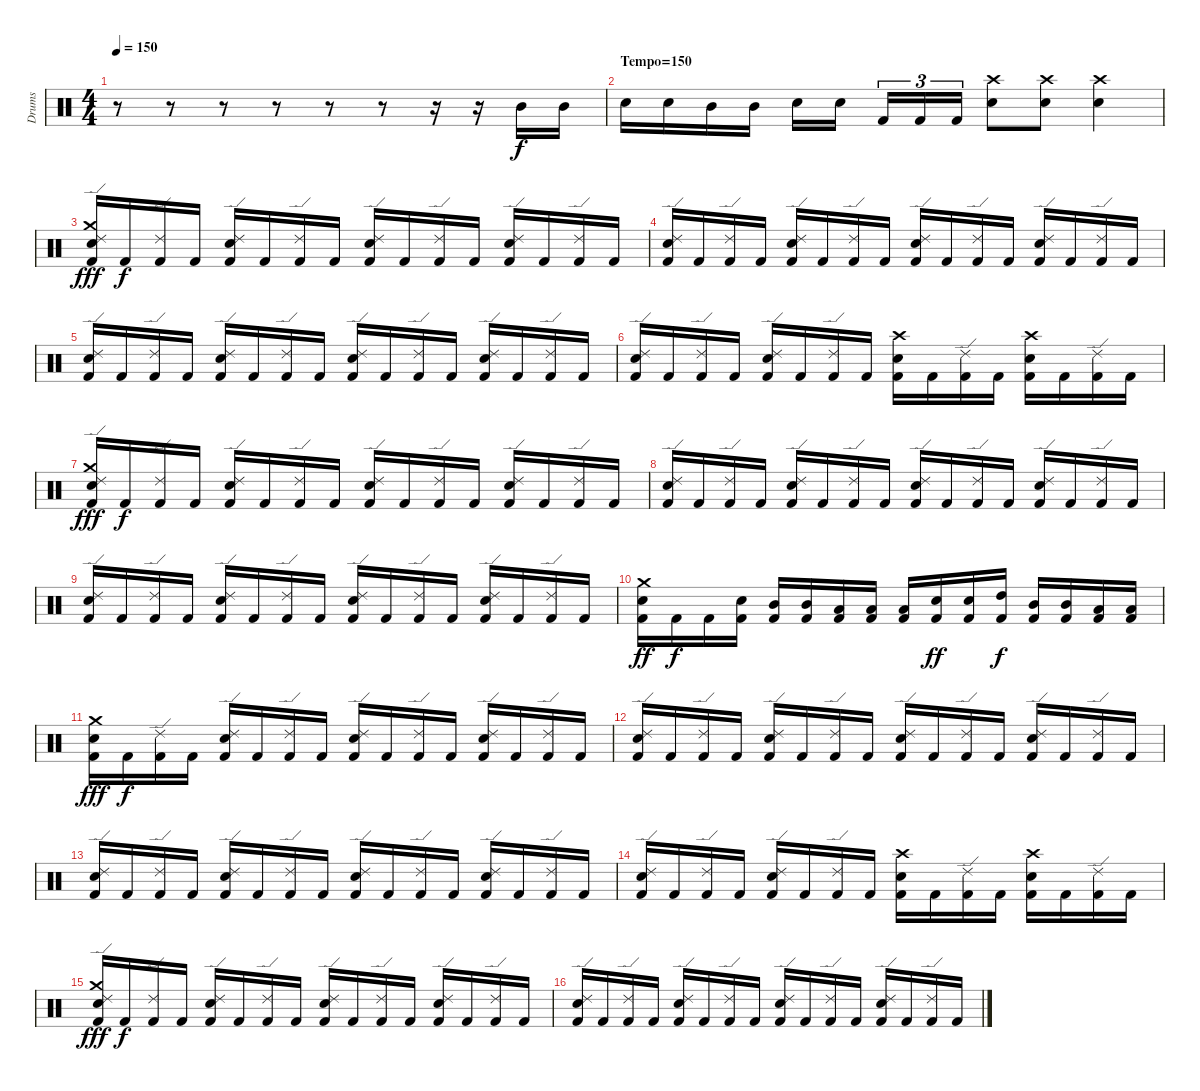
\track ("Drums" "Drums") {instrument percussion}
\staff {score}
\articulation defaults
\ts (4 4)
\tempo 150
\clef neutral
\ks c
r.8{dy f} r.8 r.8 r.8 r.8 r.8 r.16 r.16 "Mid Tom (hit)".16 "Mid Tom (hit)".16 |
\section ("" "Tempo=150")
"Electric Snare (hit)".16 "Electric Snare (hit)".16 "Mid Tom (hit)".16 "Mid Tom (hit)".16 "Electric Snare (hit)".16 "Electric Snare (hit)".16 "Kick (hit) 2".16{tu (3 2)} "Kick (hit) 2".16{tu (3 2)} "Kick (hit) 2".16{tu (3 2)} ("Crash high (hit)" "Electric Snare (hit)").8 ("Crash high (hit)" "Electric Snare (hit)").8 ("Crash high (hit)" "Electric Snare (hit)").4 |
("Crash medium (hit)" "Ride (edge) 2" "Electric Snare (hit)" "Kick (hit) 2").16{dy fff} "Kick (hit) 2".16{dy f} ("Ride (edge) 2" "Kick (hit) 2").16 "Kick (hit) 2".16 ("Ride (edge) 2" "Electric Snare (hit)" "Kick (hit) 2").16 "Kick (hit) 2".16 ("Ride (edge) 2" "Kick (hit) 2").16 "Kick (hit) 2".16 ("Ride (edge) 2" "Electric Snare (hit)" "Kick (hit) 2").16 "Kick (hit) 2".16 ("Ride (edge) 2" "Kick (hit) 2").16 "Kick (hit) 2".16 ("Ride (edge) 2" "Electric Snare (hit)" "Kick (hit) 2").16 "Kick (hit) 2".16 ("Ride (edge) 2" "Kick (hit) 2").16 "Kick (hit) 2".16 |
("Ride (edge) 2" "Electric Snare (hit)" "Kick (hit) 2").16 "Kick (hit) 2".16 ("Ride (edge) 2" "Kick (hit) 2").16 "Kick (hit) 2".16 ("Ride (edge) 2" "Electric Snare (hit)" "Kick (hit) 2").16 "Kick (hit) 2".16 ("Ride (edge) 2" "Kick (hit) 2").16 "Kick (hit) 2".16 ("Ride (edge) 2" "Electric Snare (hit)" "Kick (hit) 2").16 "Kick (hit) 2".16 ("Ride (edge) 2" "Kick (hit) 2").16 "Kick (hit) 2".16 ("Ride (edge) 2" "Electric Snare (hit)" "Kick (hit) 2").16 "Kick (hit) 2".16 ("Ride (edge) 2" "Kick (hit) 2").16 "Kick (hit) 2".16 |
("Ride (edge) 2" "Electric Snare (hit)" "Kick (hit) 2").16 "Kick (hit) 2".16 ("Ride (edge) 2" "Kick (hit) 2").16 "Kick (hit) 2".16 ("Ride (edge) 2" "Electric Snare (hit)" "Kick (hit) 2").16 "Kick (hit) 2".16 ("Ride (edge) 2" "Kick (hit) 2").16 "Kick (hit) 2".16 ("Ride (edge) 2" "Electric Snare (hit)" "Kick (hit) 2").16 "Kick (hit) 2".16 ("Ride (edge) 2" "Kick (hit) 2").16 "Kick (hit) 2".16 ("Ride (edge) 2" "Electric Snare (hit)" "Kick (hit) 2").16 "Kick (hit) 2".16 ("Ride (edge) 2" "Kick (hit) 2").16 "Kick (hit) 2".16 |
("Ride (edge) 2" "Electric Snare (hit)" "Kick (hit) 2").16 "Kick (hit) 2".16 ("Ride (edge) 2" "Kick (hit) 2").16 "Kick (hit) 2".16 ("Ride (edge) 2" "Electric Snare (hit)" "Kick (hit) 2").16 "Kick (hit) 2".16 ("Ride (edge) 2" "Kick (hit) 2").16 "Kick (hit) 2".16 ("Crash high (hit)" "Electric Snare (hit)" "Kick (hit) 2").16 "Kick (hit) 2".16 ("Ride (edge) 2" "Kick (hit) 2").16 "Kick (hit) 2".16 ("Crash high (hit)" "Electric Snare (hit)" "Kick (hit) 2").16 "Kick (hit) 2".16 ("Ride (edge) 2" "Kick (hit) 2").16 "Kick (hit) 2".16 |
("Crash medium (hit)" "Ride (edge) 2" "Electric Snare (hit)" "Kick (hit) 2").16{dy fff} "Kick (hit) 2".16{dy f} ("Ride (edge) 2" "Kick (hit) 2").16 "Kick (hit) 2".16 ("Ride (edge) 2" "Electric Snare (hit)" "Kick (hit) 2").16 "Kick (hit) 2".16 ("Ride (edge) 2" "Kick (hit) 2").16 "Kick (hit) 2".16 ("Ride (edge) 2" "Electric Snare (hit)" "Kick (hit) 2").16 "Kick (hit) 2".16 ("Ride (edge) 2" "Kick (hit) 2").16 "Kick (hit) 2".16 ("Ride (edge) 2" "Electric Snare (hit)" "Kick (hit) 2").16 "Kick (hit) 2".16 ("Ride (edge) 2" "Kick (hit) 2").16 "Kick (hit) 2".16 |
("Ride (edge) 2" "Electric Snare (hit)" "Kick (hit) 2").16 "Kick (hit) 2".16 ("Ride (edge) 2" "Kick (hit) 2").16 "Kick (hit) 2".16 ("Ride (edge) 2" "Electric Snare (hit)" "Kick (hit) 2").16 "Kick (hit) 2".16 ("Ride (edge) 2" "Kick (hit) 2").16 "Kick (hit) 2".16 ("Ride (edge) 2" "Electric Snare (hit)" "Kick (hit) 2").16 "Kick (hit) 2".16 ("Ride (edge) 2" "Kick (hit) 2").16 "Kick (hit) 2".16 ("Ride (edge) 2" "Electric Snare (hit)" "Kick (hit) 2").16 "Kick (hit) 2".16 ("Ride (edge) 2" "Kick (hit) 2").16 "Kick (hit) 2".16 |
("Ride (edge) 2" "Electric Snare (hit)" "Kick (hit) 2").16 "Kick (hit) 2".16 ("Ride (edge) 2" "Kick (hit) 2").16 "Kick (hit) 2".16 ("Ride (edge) 2" "Electric Snare (hit)" "Kick (hit) 2").16 "Kick (hit) 2".16 ("Ride (edge) 2" "Kick (hit) 2").16 "Kick (hit) 2".16 ("Ride (edge) 2" "Electric Snare (hit)" "Kick (hit) 2").16 "Kick (hit) 2".16 ("Ride (edge) 2" "Kick (hit) 2").16 "Kick (hit) 2".16 ("Ride (edge) 2" "Electric Snare (hit)" "Kick (hit) 2").16 "Kick (hit) 2".16 ("Ride (edge) 2" "Kick (hit) 2").16 "Kick (hit) 2".16 |
("Crash medium (hit)" "Electric Snare (hit)" "Kick (hit) 2").16{dy ff} "Kick (hit) 2".16{dy f} "Kick (hit) 2".16 ("Electric Snare (hit)" "Kick (hit) 2").16 ("Mid Tom (hit)" "Kick (hit) 2").16 ("Mid Tom (hit)" "Kick (hit) 2").16 ("Low Tom (hit)" "Kick (hit) 2").16 ("Low Tom (hit)" "Kick (hit) 2").16 ("Low Tom (hit)" "Kick (hit) 2").16 ("Electric Snare (hit)" "Kick (hit) 2").16{dy ff} ("Electric Snare (hit)" "Kick (hit) 2").16 ("High Tom (hit)" "Kick (hit) 2").16{dy f} ("Mid Tom (hit)" "Kick (hit) 2").16 ("Mid Tom (hit)" "Kick (hit) 2").16 ("Low Tom (hit)" "Kick (hit) 2").16 ("Low Tom (hit)" "Kick (hit) 2").16 |
("Crash medium (hit)" "Electric Snare (hit)" "Kick (hit) 2").16{dy fff} "Kick (hit) 2".16{dy f} ("Ride (edge) 2" "Kick (hit) 2").16 "Kick (hit) 2".16 ("Ride (edge) 2" "Electric Snare (hit)" "Kick (hit) 2").16 "Kick (hit) 2".16 ("Ride (edge) 2" "Kick (hit) 2").16 "Kick (hit) 2".16 ("Ride (edge) 2" "Electric Snare (hit)" "Kick (hit) 2").16 "Kick (hit) 2".16 ("Ride (edge) 2" "Kick (hit) 2").16 "Kick (hit) 2".16 ("Ride (edge) 2" "Electric Snare (hit)" "Kick (hit) 2").16 "Kick (hit) 2".16 ("Ride (edge) 2" "Kick (hit) 2").16 "Kick (hit) 2".16 |
("Ride (edge) 2" "Electric Snare (hit)" "Kick (hit) 2").16 "Kick (hit) 2".16 ("Ride (edge) 2" "Kick (hit) 2").16 "Kick (hit) 2".16 ("Ride (edge) 2" "Electric Snare (hit)" "Kick (hit) 2").16 "Kick (hit) 2".16 ("Ride (edge) 2" "Kick (hit) 2").16 "Kick (hit) 2".16 ("Ride (edge) 2" "Electric Snare (hit)" "Kick (hit) 2").16 "Kick (hit) 2".16 ("Ride (edge) 2" "Kick (hit) 2").16 "Kick (hit) 2".16 ("Ride (edge) 2" "Electric Snare (hit)" "Kick (hit) 2").16 "Kick (hit) 2".16 ("Ride (edge) 2" "Kick (hit) 2").16 "Kick (hit) 2".16 |
("Ride (edge) 2" "Electric Snare (hit)" "Kick (hit) 2").16 "Kick (hit) 2".16 ("Ride (edge) 2" "Kick (hit) 2").16 "Kick (hit) 2".16 ("Ride (edge) 2" "Electric Snare (hit)" "Kick (hit) 2").16 "Kick (hit) 2".16 ("Ride (edge) 2" "Kick (hit) 2").16 "Kick (hit) 2".16 ("Ride (edge) 2" "Electric Snare (hit)" "Kick (hit) 2").16 "Kick (hit) 2".16 ("Ride (edge) 2" "Kick (hit) 2").16 "Kick (hit) 2".16 ("Ride (edge) 2" "Electric Snare (hit)" "Kick (hit) 2").16 "Kick (hit) 2".16 ("Ride (edge) 2" "Kick (hit) 2").16 "Kick (hit) 2".16 |
("Ride (edge) 2" "Electric Snare (hit)" "Kick (hit) 2").16 "Kick (hit) 2".16 ("Ride (edge) 2" "Kick (hit) 2").16 "Kick (hit) 2".16 ("Ride (edge) 2" "Electric Snare (hit)" "Kick (hit) 2").16 "Kick (hit) 2".16 ("Ride (edge) 2" "Kick (hit) 2").16 "Kick (hit) 2".16 ("Crash high (hit)" "Electric Snare (hit)" "Kick (hit) 2").16 "Kick (hit) 2".16 ("Ride (edge) 2" "Kick (hit) 2").16 "Kick (hit) 2".16 ("Crash high (hit)" "Electric Snare (hit)" "Kick (hit) 2").16 "Kick (hit) 2".16 ("Ride (edge) 2" "Kick (hit) 2").16 "Kick (hit) 2".16 |
("Crash medium (hit)" "Ride (edge) 2" "Electric Snare (hit)" "Kick (hit) 2").16{dy fff} "Kick (hit) 2".16{dy f} ("Ride (edge) 2" "Kick (hit) 2").16 "Kick (hit) 2".16 ("Ride (edge) 2" "Electric Snare (hit)" "Kick (hit) 2").16 "Kick (hit) 2".16 ("Ride (edge) 2" "Kick (hit) 2").16 "Kick (hit) 2".16 ("Ride (edge) 2" "Electric Snare (hit)" "Kick (hit) 2").16 "Kick (hit) 2".16 ("Ride (edge) 2" "Kick (hit) 2").16 "Kick (hit) 2".16 ("Ride (edge) 2" "Electric Snare (hit)" "Kick (hit) 2").16 "Kick (hit) 2".16 ("Ride (edge) 2" "Kick (hit) 2").16 "Kick (hit) 2".16 |
("Ride (edge) 2" "Electric Snare (hit)" "Kick (hit) 2").16 "Kick (hit) 2".16 ("Ride (edge) 2" "Kick (hit) 2").16 "Kick (hit) 2".16 ("Ride (edge) 2" "Electric Snare (hit)" "Kick (hit) 2").16 "Kick (hit) 2".16 ("Ride (edge) 2" "Kick (hit) 2").16 "Kick (hit) 2".16 ("Ride (edge) 2" "Electric Snare (hit)" "Kick (hit) 2").16 "Kick (hit) 2".16 ("Ride (edge) 2" "Kick (hit) 2").16 "Kick (hit) 2".16 ("Ride (edge) 2" "Electric Snare (hit)" "Kick (hit) 2").16 "Kick (hit) 2".16 ("Ride (edge) 2" "Kick (hit) 2").16 "Kick (hit) 2".16
